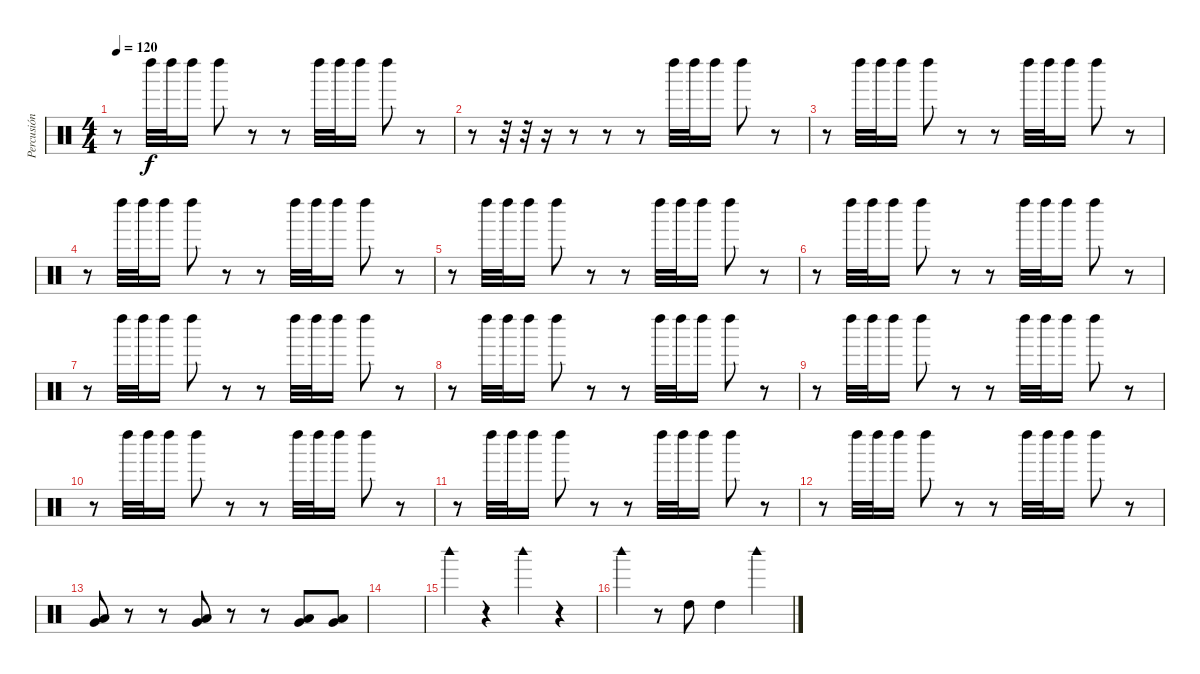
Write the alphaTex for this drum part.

\track ("Percusión" "Percusión") {instrument percussion}
\staff {score}
\articulation defaults
\ts (4 4)
\tempo 120
\clef neutral
\ks c
r.8{dy f} "Left Maraca (hit)".32 "Left Maraca (hit)".32 "Left Maraca (hit)".16 "Left Maraca (hit)".8 r.8 r.8 "Left Maraca (hit)".32 "Left Maraca (hit)".32 "Left Maraca (hit)".16 "Left Maraca (hit)".8 r.8 |
r.8 r.32 r.32 r.16 r.8 r.8 r.8 "Left Maraca (hit)".32 "Left Maraca (hit)".32 "Left Maraca (hit)".16 "Left Maraca (hit)".8 r.8 |
r.8 "Left Maraca (hit)".32 "Left Maraca (hit)".32 "Left Maraca (hit)".16 "Left Maraca (hit)".8 r.8 r.8 "Left Maraca (hit)".32 "Left Maraca (hit)".32 "Left Maraca (hit)".16 "Left Maraca (hit)".8 r.8 |
r.8 "Left Maraca (hit)".32 "Left Maraca (hit)".32 "Left Maraca (hit)".16 "Left Maraca (hit)".8 r.8 r.8 "Left Maraca (hit)".32 "Left Maraca (hit)".32 "Left Maraca (hit)".16 "Left Maraca (hit)".8 r.8 |
r.8 "Left Maraca (hit)".32 "Left Maraca (hit)".32 "Left Maraca (hit)".16 "Left Maraca (hit)".8 r.8 r.8 "Left Maraca (hit)".32 "Left Maraca (hit)".32 "Left Maraca (hit)".16 "Left Maraca (hit)".8 r.8 |
r.8 "Left Maraca (hit)".32 "Left Maraca (hit)".32 "Left Maraca (hit)".16 "Left Maraca (hit)".8 r.8 r.8 "Left Maraca (hit)".32 "Left Maraca (hit)".32 "Left Maraca (hit)".16 "Left Maraca (hit)".8 r.8 |
r.8 "Left Maraca (hit)".32 "Left Maraca (hit)".32 "Left Maraca (hit)".16 "Left Maraca (hit)".8 r.8 r.8 "Left Maraca (hit)".32 "Left Maraca (hit)".32 "Left Maraca (hit)".16 "Left Maraca (hit)".8 r.8 |
r.8 "Left Maraca (hit)".32 "Left Maraca (hit)".32 "Left Maraca (hit)".16 "Left Maraca (hit)".8 r.8 r.8 "Left Maraca (hit)".32 "Left Maraca (hit)".32 "Left Maraca (hit)".16 "Left Maraca (hit)".8 r.8 |
r.8 "Left Maraca (hit)".32 "Left Maraca (hit)".32 "Left Maraca (hit)".16 "Left Maraca (hit)".8 r.8 r.8 "Left Maraca (hit)".32 "Left Maraca (hit)".32 "Left Maraca (hit)".16 "Left Maraca (hit)".8 r.8 |
r.8 "Left Maraca (hit)".32 "Left Maraca (hit)".32 "Left Maraca (hit)".16 "Left Maraca (hit)".8 r.8 r.8 "Left Maraca (hit)".32 "Left Maraca (hit)".32 "Left Maraca (hit)".16 "Left Maraca (hit)".8 r.8 |
r.8 "Left Maraca (hit)".32 "Left Maraca (hit)".32 "Left Maraca (hit)".16 "Left Maraca (hit)".8 r.8 r.8 "Left Maraca (hit)".32 "Left Maraca (hit)".32 "Left Maraca (hit)".16 "Left Maraca (hit)".8 r.8 |
r.8 "Left Maraca (hit)".32 "Left Maraca (hit)".32 "Left Maraca (hit)".16 "Left Maraca (hit)".8 r.8 r.8 "Left Maraca (hit)".32 "Left Maraca (hit)".32 "Left Maraca (hit)".16 "Left Maraca (hit)".8 r.8 |
("Low Floor Tom (hit)" "Very Low Tom (hit)").8 r.8 r.8 ("Low Floor Tom (hit)" "Very Low Tom (hit)").8 r.8 r.8 ("Low Floor Tom (hit)" "Very Low Tom (hit)").8 ("Low Floor Tom (hit)" "Very Low Tom (hit)").8 |
|
"Woodblock high (hit)".4 r.4 "Woodblock high (hit)".4 r.4 |
"Woodblock high (hit)".4 r.8 "High Tom (hit)".8 "High Tom (hit)".4 "Woodblock high (hit)".4
